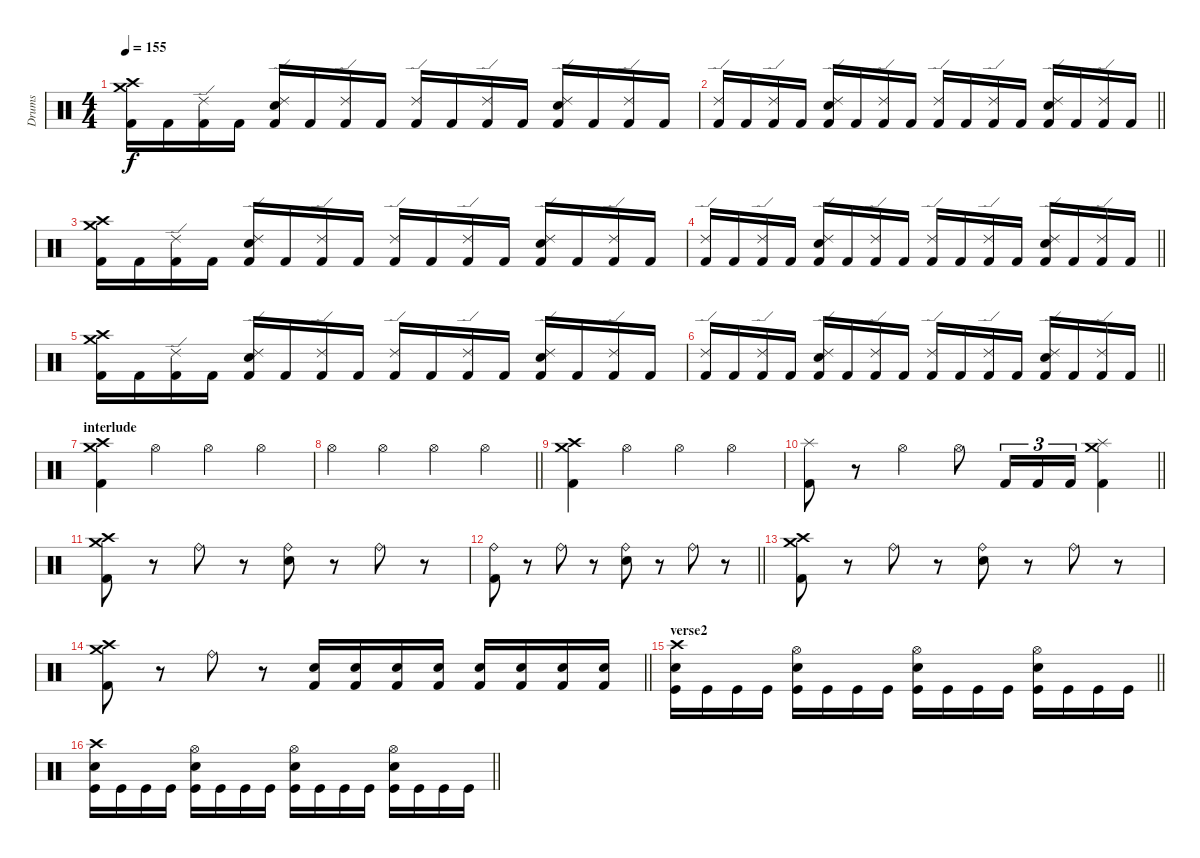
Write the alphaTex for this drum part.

\track ("Drums" "Drums") {instrument percussion}
\staff {score}
\articulation defaults
\ts (4 4)
\tempo 155
\clef neutral
\ks c
("Crash high (hit)" "Crash medium (hit)" "Kick (hit) 2").16{dy f} "Kick (hit) 2".16 ("Ride (edge) 2" "Kick (hit) 2").16 "Kick (hit) 2".16 ("Ride (edge) 2" "Electric Snare (hit)" "Kick (hit) 2").16 "Kick (hit) 2".16 ("Ride (edge) 2" "Kick (hit) 2").16 "Kick (hit) 2".16 ("Ride (edge) 2" "Kick (hit) 2").16 "Kick (hit) 2".16 ("Ride (edge) 2" "Kick (hit) 2").16 "Kick (hit) 2".16 ("Ride (edge) 2" "Electric Snare (hit)" "Kick (hit) 2").16 "Kick (hit) 2".16 ("Ride (edge) 2" "Kick (hit) 2").16 "Kick (hit) 2".16 |
\barLineRight lightlight
("Ride (edge) 2" "Kick (hit) 2").16 "Kick (hit) 2".16 ("Ride (edge) 2" "Kick (hit) 2").16 "Kick (hit) 2".16 ("Ride (edge) 2" "Electric Snare (hit)" "Kick (hit) 2").16 "Kick (hit) 2".16 ("Ride (edge) 2" "Kick (hit) 2").16 "Kick (hit) 2".16 ("Ride (edge) 2" "Kick (hit) 2").16 "Kick (hit) 2".16 ("Ride (edge) 2" "Kick (hit) 2").16 "Kick (hit) 2".16 ("Ride (edge) 2" "Electric Snare (hit)" "Kick (hit) 2").16 "Kick (hit) 2".16 ("Ride (edge) 2" "Kick (hit) 2").16 "Kick (hit) 2".16 |
("Crash high (hit)" "Crash medium (hit)" "Kick (hit) 2").16 "Kick (hit) 2".16 ("Ride (edge) 2" "Kick (hit) 2").16 "Kick (hit) 2".16 ("Ride (edge) 2" "Electric Snare (hit)" "Kick (hit) 2").16 "Kick (hit) 2".16 ("Ride (edge) 2" "Kick (hit) 2").16 "Kick (hit) 2".16 ("Ride (edge) 2" "Kick (hit) 2").16 "Kick (hit) 2".16 ("Ride (edge) 2" "Kick (hit) 2").16 "Kick (hit) 2".16 ("Ride (edge) 2" "Electric Snare (hit)" "Kick (hit) 2").16 "Kick (hit) 2".16 ("Ride (edge) 2" "Kick (hit) 2").16 "Kick (hit) 2".16 |
\barLineRight lightlight
("Ride (edge) 2" "Kick (hit) 2").16 "Kick (hit) 2".16 ("Ride (edge) 2" "Kick (hit) 2").16 "Kick (hit) 2".16 ("Ride (edge) 2" "Electric Snare (hit)" "Kick (hit) 2").16 "Kick (hit) 2".16 ("Ride (edge) 2" "Kick (hit) 2").16 "Kick (hit) 2".16 ("Ride (edge) 2" "Kick (hit) 2").16 "Kick (hit) 2".16 ("Ride (edge) 2" "Kick (hit) 2").16 "Kick (hit) 2".16 ("Ride (edge) 2" "Electric Snare (hit)" "Kick (hit) 2").16 "Kick (hit) 2".16 ("Ride (edge) 2" "Kick (hit) 2").16 "Kick (hit) 2".16 |
("Crash high (hit)" "Crash medium (hit)" "Kick (hit) 2").16 "Kick (hit) 2".16 ("Ride (edge) 2" "Kick (hit) 2").16 "Kick (hit) 2".16 ("Ride (edge) 2" "Electric Snare (hit)" "Kick (hit) 2").16 "Kick (hit) 2".16 ("Ride (edge) 2" "Kick (hit) 2").16 "Kick (hit) 2".16 ("Ride (edge) 2" "Kick (hit) 2").16 "Kick (hit) 2".16 ("Ride (edge) 2" "Kick (hit) 2").16 "Kick (hit) 2".16 ("Ride (edge) 2" "Electric Snare (hit)" "Kick (hit) 2").16 "Kick (hit) 2".16 ("Ride (edge) 2" "Kick (hit) 2").16 "Kick (hit) 2".16 |
\barLineRight lightlight
("Ride (edge) 2" "Kick (hit) 2").16 "Kick (hit) 2".16 ("Ride (edge) 2" "Kick (hit) 2").16 "Kick (hit) 2".16 ("Ride (edge) 2" "Electric Snare (hit)" "Kick (hit) 2").16 "Kick (hit) 2".16 ("Ride (edge) 2" "Kick (hit) 2").16 "Kick (hit) 2".16 ("Ride (edge) 2" "Kick (hit) 2").16 "Kick (hit) 2".16 ("Ride (edge) 2" "Kick (hit) 2").16 "Kick (hit) 2".16 ("Ride (edge) 2" "Electric Snare (hit)" "Kick (hit) 2").16 "Kick (hit) 2".16 ("Ride (edge) 2" "Kick (hit) 2").16 "Kick (hit) 2".16 |
\section ("" "interlude")
("Crash medium (hit)" "Crash high (hit)" "Kick (hit) 2").4 "Hi-Hat (open)".4 "Hi-Hat (open)".4 "Hi-Hat (open)".4 |
\barLineRight lightlight "Hi-Hat (open)".4 "Hi-Hat (open)".4 "Hi-Hat (open)".4 "Hi-Hat (open)".4
|
("Crash medium (hit)" "Crash high (hit)" "Kick (hit) 2").4 "Hi-Hat (open)".4 "Hi-Hat (open)".4 "Hi-Hat (open)".4 |
\barLineRight lightlight
("Splash (hit)" "Kick (hit) 2").8 r.8 "Hi-Hat (open)".4 "Hi-Hat (open)".8 "Kick (hit) 2".16{tu (3 2)} "Kick (hit) 2".16{tu (3 2)} "Kick (hit) 2".16{tu (3 2)} ("Kick (hit) 2" "Crash medium (hit)" "Splash (hit)").4 |
("Crash medium (hit)" "Crash high (hit)" "Kick (hit) 2").8 r.8 "Ride (bell)".8 r.8 ("Ride (bell)" "Electric Snare (hit)").8 r.8 "Ride (bell)".8 r.8 |
\barLineRight lightlight
("Ride (bell)" "Kick (hit) 2").8 r.8 "Ride (bell)".8 r.8 ("Ride (bell)" "Electric Snare (hit)").8 r.8 "Ride (bell)".8 r.8 |
("Crash medium (hit)" "Crash high (hit)" "Kick (hit) 2").8 r.8 "Ride (bell)".8 r.8 ("Ride (bell)" "Electric Snare (hit)").8 r.8 "Ride (bell)".8 r.8 |
\barLineRight lightlight
("Crash medium (hit)" "Crash high (hit)" "Kick (hit) 2").8 r.8 "Ride (bell)".8 r.8 ("Electric Snare (hit)" "Kick (hit) 2").16 ("Electric Snare (hit)" "Kick (hit) 2").16 ("Electric Snare (hit)" "Kick (hit) 2").16 ("Electric Snare (hit)" "Kick (hit) 2").16 ("Electric Snare (hit)" "Kick (hit) 2").16 ("Electric Snare (hit)" "Kick (hit) 2").16 ("Electric Snare (hit)" "Kick (hit) 2").16 ("Electric Snare (hit)" "Kick (hit) 2").16 |
\section ("" "verse2")
\barLineRight lightlight
("Crash high (hit)" "Snare (hit) 2" "Kick (hit)").16 "Kick (hit)".16 "Kick (hit)".16 "Kick (hit)".16 ("Hi-Hat (open)" "Snare (hit) 2" "Kick (hit)").16 "Kick (hit)".16 "Kick (hit)".16 "Kick (hit)".16 ("Hi-Hat (open)" "Snare (hit) 2" "Kick (hit)").16 "Kick (hit)".16 "Kick (hit)".16 "Kick (hit)".16 ("Hi-Hat (open)" "Snare (hit) 2" "Kick (hit)").16 "Kick (hit)".16 "Kick (hit)".16 "Kick (hit)".16 |
\barLineRight lightlight
("Crash high (hit)" "Snare (hit) 2" "Kick (hit)").16 "Kick (hit)".16 "Kick (hit)".16 "Kick (hit)".16 ("Hi-Hat (open)" "Snare (hit) 2" "Kick (hit)").16 "Kick (hit)".16 "Kick (hit)".16 "Kick (hit)".16 ("Hi-Hat (open)" "Snare (hit) 2" "Kick (hit)").16 "Kick (hit)".16 "Kick (hit)".16 "Kick (hit)".16 ("Hi-Hat (open)" "Snare (hit) 2" "Kick (hit)").16 "Kick (hit)".16 "Kick (hit)".16 "Kick (hit)".16
